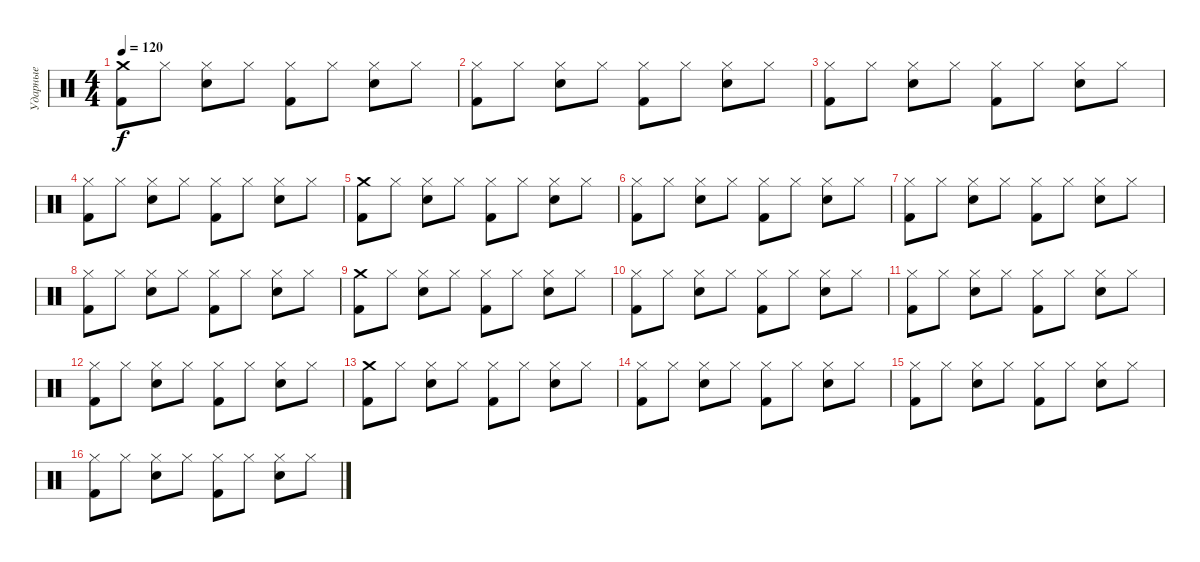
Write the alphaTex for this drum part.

\track ("Ударные" "Ударные") {instrument percussion}
\staff {score}
\articulation defaults
\ts (4 4)
\tempo 120
\clef neutral
\ks c
("Crash medium (hit)" "Kick (hit) 2").8{dy f} "Hi-Hat (closed)".8 ("Hi-Hat (closed)" "Electric Snare (hit)").8 "Hi-Hat (closed)".8 ("Hi-Hat (closed)" "Kick (hit) 2").8 "Hi-Hat (closed)".8 ("Hi-Hat (closed)" "Electric Snare (hit)").8 "Hi-Hat (closed)".8 |
("Hi-Hat (closed)" "Kick (hit) 2").8 "Hi-Hat (closed)".8 ("Hi-Hat (closed)" "Electric Snare (hit)").8 "Hi-Hat (closed)".8 ("Hi-Hat (closed)" "Kick (hit) 2").8 "Hi-Hat (closed)".8 ("Hi-Hat (closed)" "Electric Snare (hit)").8 "Hi-Hat (closed)".8 |
("Hi-Hat (closed)" "Kick (hit) 2").8 "Hi-Hat (closed)".8 ("Hi-Hat (closed)" "Electric Snare (hit)").8 "Hi-Hat (closed)".8 ("Hi-Hat (closed)" "Kick (hit) 2").8 "Hi-Hat (closed)".8 ("Hi-Hat (closed)" "Electric Snare (hit)").8 "Hi-Hat (closed)".8 |
("Hi-Hat (closed)" "Kick (hit) 2").8 "Hi-Hat (closed)".8 ("Hi-Hat (closed)" "Electric Snare (hit)").8 "Hi-Hat (closed)".8 ("Hi-Hat (closed)" "Kick (hit) 2").8 "Hi-Hat (closed)".8 ("Hi-Hat (closed)" "Electric Snare (hit)").8 "Hi-Hat (closed)".8 |
("Crash medium (hit)" "Kick (hit) 2").8 "Hi-Hat (closed)".8 ("Hi-Hat (closed)" "Electric Snare (hit)").8 "Hi-Hat (closed)".8 ("Hi-Hat (closed)" "Kick (hit) 2").8 "Hi-Hat (closed)".8 ("Hi-Hat (closed)" "Electric Snare (hit)").8 "Hi-Hat (closed)".8 |
("Hi-Hat (closed)" "Kick (hit) 2").8 "Hi-Hat (closed)".8 ("Hi-Hat (closed)" "Electric Snare (hit)").8 "Hi-Hat (closed)".8 ("Hi-Hat (closed)" "Kick (hit) 2").8 "Hi-Hat (closed)".8 ("Hi-Hat (closed)" "Electric Snare (hit)").8 "Hi-Hat (closed)".8 |
("Hi-Hat (closed)" "Kick (hit) 2").8 "Hi-Hat (closed)".8 ("Hi-Hat (closed)" "Electric Snare (hit)").8 "Hi-Hat (closed)".8 ("Hi-Hat (closed)" "Kick (hit) 2").8 "Hi-Hat (closed)".8 ("Hi-Hat (closed)" "Electric Snare (hit)").8 "Hi-Hat (closed)".8 |
("Hi-Hat (closed)" "Kick (hit) 2").8 "Hi-Hat (closed)".8 ("Hi-Hat (closed)" "Electric Snare (hit)").8 "Hi-Hat (closed)".8 ("Hi-Hat (closed)" "Kick (hit) 2").8 "Hi-Hat (closed)".8 ("Hi-Hat (closed)" "Electric Snare (hit)").8 "Hi-Hat (closed)".8 |
("Crash medium (hit)" "Kick (hit) 2").8 "Hi-Hat (closed)".8 ("Hi-Hat (closed)" "Electric Snare (hit)").8 "Hi-Hat (closed)".8 ("Hi-Hat (closed)" "Kick (hit) 2").8 "Hi-Hat (closed)".8 ("Hi-Hat (closed)" "Electric Snare (hit)").8 "Hi-Hat (closed)".8 |
("Hi-Hat (closed)" "Kick (hit) 2").8 "Hi-Hat (closed)".8 ("Hi-Hat (closed)" "Electric Snare (hit)").8 "Hi-Hat (closed)".8 ("Hi-Hat (closed)" "Kick (hit) 2").8 "Hi-Hat (closed)".8 ("Hi-Hat (closed)" "Electric Snare (hit)").8 "Hi-Hat (closed)".8 |
("Hi-Hat (closed)" "Kick (hit) 2").8 "Hi-Hat (closed)".8 ("Hi-Hat (closed)" "Electric Snare (hit)").8 "Hi-Hat (closed)".8 ("Hi-Hat (closed)" "Kick (hit) 2").8 "Hi-Hat (closed)".8 ("Hi-Hat (closed)" "Electric Snare (hit)").8 "Hi-Hat (closed)".8 |
("Hi-Hat (closed)" "Kick (hit) 2").8 "Hi-Hat (closed)".8 ("Hi-Hat (closed)" "Electric Snare (hit)").8 "Hi-Hat (closed)".8 ("Hi-Hat (closed)" "Kick (hit) 2").8 "Hi-Hat (closed)".8 ("Hi-Hat (closed)" "Electric Snare (hit)").8 "Hi-Hat (closed)".8 |
("Crash medium (hit)" "Kick (hit) 2").8 "Hi-Hat (closed)".8 ("Hi-Hat (closed)" "Electric Snare (hit)").8 "Hi-Hat (closed)".8 ("Hi-Hat (closed)" "Kick (hit) 2").8 "Hi-Hat (closed)".8 ("Hi-Hat (closed)" "Electric Snare (hit)").8 "Hi-Hat (closed)".8 |
("Hi-Hat (closed)" "Kick (hit) 2").8 "Hi-Hat (closed)".8 ("Hi-Hat (closed)" "Electric Snare (hit)").8 "Hi-Hat (closed)".8 ("Hi-Hat (closed)" "Kick (hit) 2").8 "Hi-Hat (closed)".8 ("Hi-Hat (closed)" "Electric Snare (hit)").8 "Hi-Hat (closed)".8 |
("Hi-Hat (closed)" "Kick (hit) 2").8 "Hi-Hat (closed)".8 ("Hi-Hat (closed)" "Electric Snare (hit)").8 "Hi-Hat (closed)".8 ("Hi-Hat (closed)" "Kick (hit) 2").8 "Hi-Hat (closed)".8 ("Hi-Hat (closed)" "Electric Snare (hit)").8 "Hi-Hat (closed)".8 |
("Hi-Hat (closed)" "Kick (hit) 2").8 "Hi-Hat (closed)".8 ("Hi-Hat (closed)" "Electric Snare (hit)").8 "Hi-Hat (closed)".8 ("Hi-Hat (closed)" "Kick (hit) 2").8 "Hi-Hat (closed)".8 ("Hi-Hat (closed)" "Electric Snare (hit)").8 "Hi-Hat (closed)".8
